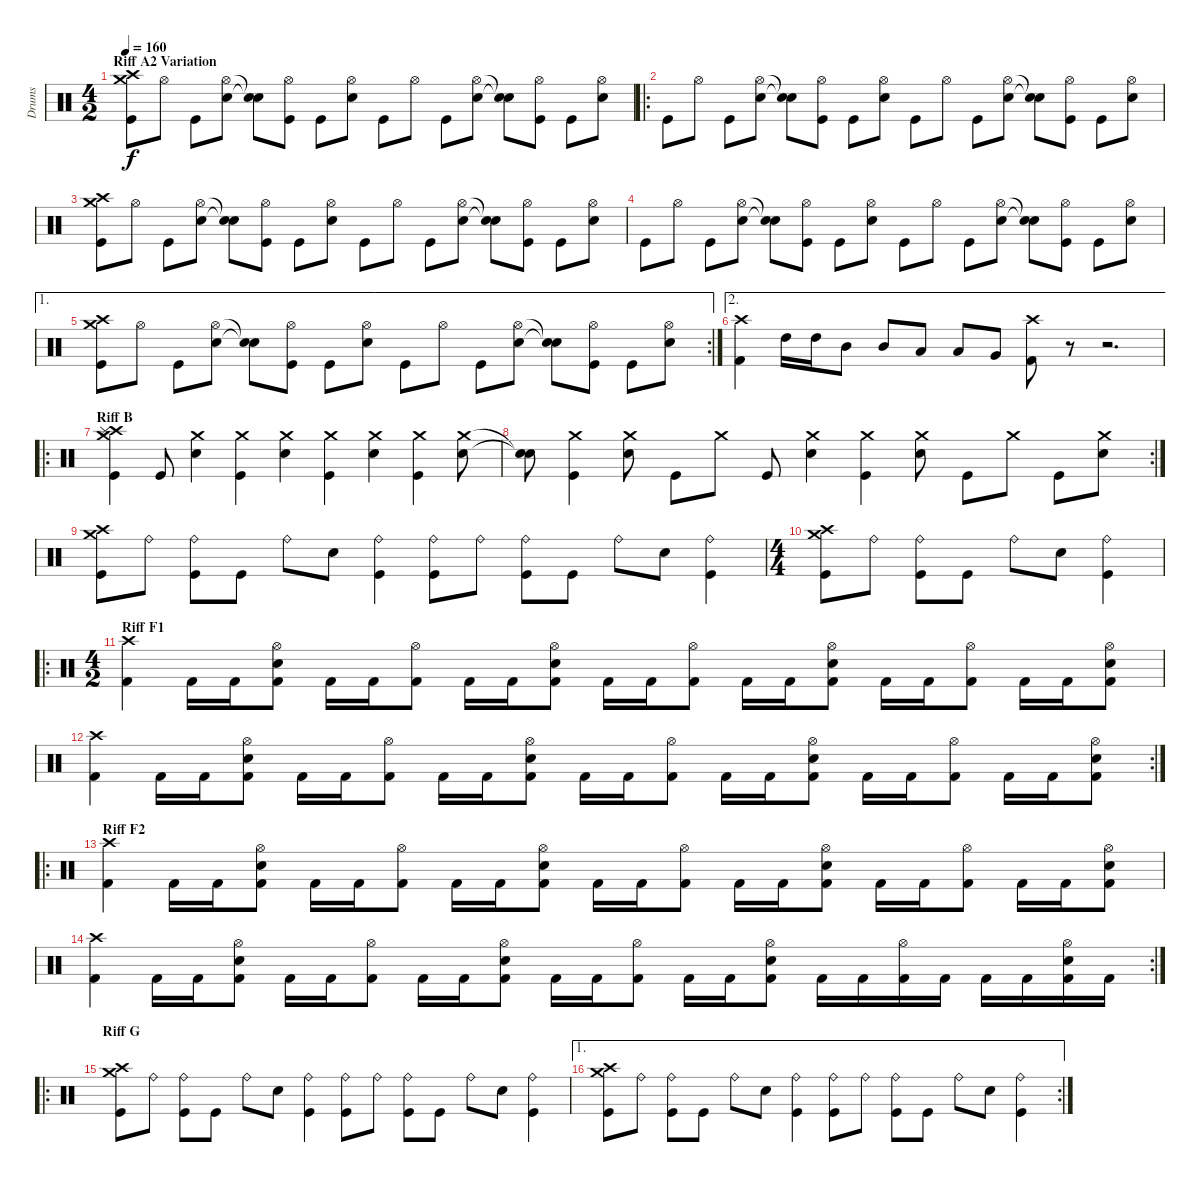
\track ("Drums" "Drums") {instrument percussion}
\staff {score}
\articulation defaults
\ts (4 2)
\section ("" "Riff A2 Variation")
\tempo 160
\clef neutral
\ks c
("Kick (hit)" "Crash medium (hit)" "Crash high (hit)").8{dy f} "Hi-Hat (open)".8 "Kick (hit)".8 ("Hi-Hat (open)" "Electric Snare (hit)").8 ("Snare (hit)"{t} "Snare (hit)"{t}).8 ("Kick (hit)" "Hi-Hat (open)").8 "Kick (hit)".8 ("Hi-Hat (open)" "Electric Snare (hit)").8 "Kick (hit)".8 "Hi-Hat (open)".8 "Kick (hit)".8 ("Hi-Hat (open)" "Electric Snare (hit)").8 ("Snare (hit)"{t} "Snare (hit)"{t}).8 ("Kick (hit)" "Hi-Hat (open)").8 "Kick (hit)".8 ("Hi-Hat (open)" "Electric Snare (hit)").8 |
\ro "Kick (hit)".8 "Hi-Hat (open)".8 "Kick (hit)".8
("Hi-Hat (open)" "Electric Snare (hit)").8 ("Snare (hit)"{t} "Snare (hit)"{t}).8 ("Kick (hit)" "Hi-Hat (open)").8 "Kick (hit)".8 ("Hi-Hat (open)" "Electric Snare (hit)").8 "Kick (hit)".8 "Hi-Hat (open)".8 "Kick (hit)".8 ("Hi-Hat (open)" "Electric Snare (hit)").8 ("Snare (hit)"{t} "Snare (hit)"{t}).8 ("Kick (hit)" "Hi-Hat (open)").8 "Kick (hit)".8 ("Hi-Hat (open)" "Electric Snare (hit)").8 |
("Kick (hit)" "Crash medium (hit)" "Crash high (hit)").8 "Hi-Hat (open)".8 "Kick (hit)".8 ("Hi-Hat (open)" "Electric Snare (hit)").8 ("Snare (hit)"{t} "Snare (hit)"{t}).8 ("Kick (hit)" "Hi-Hat (open)").8 "Kick (hit)".8 ("Hi-Hat (open)" "Electric Snare (hit)").8 "Kick (hit)".8 "Hi-Hat (open)".8 "Kick (hit)".8 ("Hi-Hat (open)" "Electric Snare (hit)").8 ("Snare (hit)"{t} "Snare (hit)"{t}).8 ("Kick (hit)" "Hi-Hat (open)").8 "Kick (hit)".8 ("Hi-Hat (open)" "Electric Snare (hit)").8 |
"Kick (hit)".8 "Hi-Hat (open)".8 "Kick (hit)".8 ("Hi-Hat (open)" "Electric Snare (hit)").8 ("Snare (hit)"{t} "Snare (hit)"{t}).8 ("Kick (hit)" "Hi-Hat (open)").8 "Kick (hit)".8 ("Hi-Hat (open)" "Electric Snare (hit)").8 "Kick (hit)".8 "Hi-Hat (open)".8 "Kick (hit)".8 ("Hi-Hat (open)" "Electric Snare (hit)").8 ("Snare (hit)"{t} "Snare (hit)"{t}).8 ("Kick (hit)" "Hi-Hat (open)").8 "Kick (hit)".8 ("Hi-Hat (open)" "Electric Snare (hit)").8 |
\ae 1
\rc 2
("Kick (hit)" "Crash medium (hit)" "Crash high (hit)").8 "Hi-Hat (open)".8 "Kick (hit)".8 ("Hi-Hat (open)" "Electric Snare (hit)").8 ("Snare (hit)"{t} "Snare (hit)"{t}).8 ("Kick (hit)" "Hi-Hat (open)").8 "Kick (hit)".8 ("Hi-Hat (open)" "Electric Snare (hit)").8 "Kick (hit)".8 "Hi-Hat (open)".8 "Kick (hit)".8 ("Hi-Hat (open)" "Electric Snare (hit)").8 ("Snare (hit)"{t} "Snare (hit)"{t}).8 ("Kick (hit)" "Hi-Hat (open)").8 "Kick (hit)".8 ("Hi-Hat (open)" "Electric Snare (hit)").8 |
\ae 2
("Crash high (hit)" "Kick (hit) 2").4 "High Tom (hit)".16 "High Tom (hit)".16 "Mid Tom (hit)".8 "Mid Tom (hit)".8 "Low Tom (hit)".8 "Low Tom (hit)".8 "Very Low Tom (hit)".8 ("Crash high (hit)" "Kick (hit) 2").8 r.8 r.2{d} |
\ro
\section ("" "Riff B")
("Kick (hit)" "Crash medium (hit)" "Crash high (hit)" "Splash (hit)").4 "Kick (hit)".8 ("Crash medium (hit)" "Electric Snare (hit)").4 ("Kick (hit)" "Crash medium (hit)").4 ("Crash medium (hit)" "Electric Snare (hit)").4 ("Kick (hit)" "Crash medium (hit)").4 ("Crash medium (hit)" "Electric Snare (hit)").4 ("Kick (hit)" "Crash medium (hit)").4 ("Crash medium (hit)" "Electric Snare (hit)").8 |
\rc 2
("Snare (hit)"{t} "Snare (hit)"{t}).8 ("Kick (hit)" "Crash medium (hit)").4 ("Crash medium (hit)" "Electric Snare (hit)").8 "Kick (hit)".8 "Crash medium (hit)".8 "Kick (hit)".8 ("Crash medium (hit)" "Electric Snare (hit)").4 ("Kick (hit)" "Crash medium (hit)").4 ("Crash medium (hit)" "Electric Snare (hit)").8 "Kick (hit)".8 "Crash medium (hit)".8 "Kick (hit)".8 ("Crash medium (hit)" "Electric Snare (hit)").8 |
("Kick (hit)" "Crash high (hit)" "Crash medium (hit)").8 "Ride (bell)".8 ("Kick (hit)" "Ride (bell)").8 "Kick (hit)".8 "Ride (bell)".8 "Electric Snare (hit)".8 ("Kick (hit)" "Ride (bell)").4 ("Kick (hit)" "Ride (bell)").8 "Ride (bell)".8 ("Kick (hit)" "Ride (bell)").8 "Kick (hit)".8 "Ride (bell)".8 "Electric Snare (hit)".8 ("Kick (hit)" "Ride (bell)").4 |
\ts (4 4)
("Kick (hit)" "Crash high (hit)" "Crash medium (hit)").8 "Ride (bell)".8 ("Kick (hit)" "Ride (bell)").8 "Kick (hit)".8 "Ride (bell)".8 "Electric Snare (hit)".8 ("Kick (hit)" "Ride (bell)").4 |
\ro
\ts (4 2)
\section ("" "Riff F1")
("Crash high (hit)" "Kick (hit) 2").4 "Kick (hit) 2".16 "Kick (hit) 2".16 ("Hi-Hat (open)" "Electric Snare (hit)" "Kick (hit) 2").8 "Kick (hit) 2".16 "Kick (hit) 2".16 ("Hi-Hat (open)" "Kick (hit) 2").8 "Kick (hit) 2".16 "Kick (hit) 2".16 ("Hi-Hat (open)" "Electric Snare (hit)" "Kick (hit) 2").8 "Kick (hit) 2".16 "Kick (hit) 2".16 ("Hi-Hat (open)" "Kick (hit) 2").8 "Kick (hit) 2".16 "Kick (hit) 2".16 ("Hi-Hat (open)" "Electric Snare (hit)" "Kick (hit) 2").8 "Kick (hit) 2".16 "Kick (hit) 2".16 ("Hi-Hat (open)" "Kick (hit) 2").8 "Kick (hit) 2".16 "Kick (hit) 2".16 ("Hi-Hat (open)" "Electric Snare (hit)" "Kick (hit) 2").8 |
\rc 2
("Crash high (hit)" "Kick (hit) 2").4 "Kick (hit) 2".16 "Kick (hit) 2".16 ("Hi-Hat (open)" "Electric Snare (hit)" "Kick (hit) 2").8 "Kick (hit) 2".16 "Kick (hit) 2".16 ("Hi-Hat (open)" "Kick (hit) 2").8 "Kick (hit) 2".16 "Kick (hit) 2".16 ("Hi-Hat (open)" "Electric Snare (hit)" "Kick (hit) 2").8 "Kick (hit) 2".16 "Kick (hit) 2".16 ("Hi-Hat (open)" "Kick (hit) 2").8 "Kick (hit) 2".16 "Kick (hit) 2".16 ("Hi-Hat (open)" "Electric Snare (hit)" "Kick (hit) 2").8 "Kick (hit) 2".16 "Kick (hit) 2".16 ("Hi-Hat (open)" "Kick (hit) 2").8 "Kick (hit) 2".16 "Kick (hit) 2".16 ("Hi-Hat (open)" "Electric Snare (hit)" "Kick (hit) 2").8 |
\ro
\section ("" "Riff F2")
("Crash high (hit)" "Kick (hit) 2").4 "Kick (hit) 2".16 "Kick (hit) 2".16 ("Hi-Hat (open)" "Electric Snare (hit)" "Kick (hit) 2").8 "Kick (hit) 2".16 "Kick (hit) 2".16 ("Hi-Hat (open)" "Kick (hit) 2").8 "Kick (hit) 2".16 "Kick (hit) 2".16 ("Hi-Hat (open)" "Electric Snare (hit)" "Kick (hit) 2").8 "Kick (hit) 2".16 "Kick (hit) 2".16 ("Hi-Hat (open)" "Kick (hit) 2").8 "Kick (hit) 2".16 "Kick (hit) 2".16 ("Hi-Hat (open)" "Electric Snare (hit)" "Kick (hit) 2").8 "Kick (hit) 2".16 "Kick (hit) 2".16 ("Hi-Hat (open)" "Kick (hit) 2").8 "Kick (hit) 2".16 "Kick (hit) 2".16 ("Hi-Hat (open)" "Electric Snare (hit)" "Kick (hit) 2").8 |
\rc 2
("Crash high (hit)" "Kick (hit) 2").4 "Kick (hit) 2".16 "Kick (hit) 2".16 ("Hi-Hat (open)" "Electric Snare (hit)" "Kick (hit) 2").8 "Kick (hit) 2".16 "Kick (hit) 2".16 ("Hi-Hat (open)" "Kick (hit) 2").8 "Kick (hit) 2".16 "Kick (hit) 2".16 ("Hi-Hat (open)" "Electric Snare (hit)" "Kick (hit) 2").8 "Kick (hit) 2".16 "Kick (hit) 2".16 ("Hi-Hat (open)" "Kick (hit) 2").8 "Kick (hit) 2".16 "Kick (hit) 2".16 ("Hi-Hat (open)" "Electric Snare (hit)" "Kick (hit) 2").8 "Kick (hit) 2".16 "Kick (hit) 2".16 ("Hi-Hat (open)" "Kick (hit) 2").16 "Kick (hit) 2".16 "Kick (hit) 2".16 "Kick (hit) 2".16 ("Hi-Hat (open)" "Electric Snare (hit)" "Kick (hit) 2").16 "Kick (hit) 2".16 |
\ro
\section ("" "Riff G")
("Kick (hit)" "Crash high (hit)" "Crash medium (hit)").8 "Ride (bell)".8 ("Kick (hit)" "Ride (bell)").8 "Kick (hit)".8 "Ride (bell)".8 "Electric Snare (hit)".8 ("Kick (hit)" "Ride (bell)").4 ("Kick (hit)" "Ride (bell)").8 "Ride (bell)".8 ("Kick (hit)" "Ride (bell)").8 "Kick (hit)".8 "Ride (bell)".8 "Electric Snare (hit)".8 ("Kick (hit)" "Ride (bell)").4 |
\ae 1
\rc 2
("Kick (hit)" "Crash high (hit)" "Crash medium (hit)").8 "Ride (bell)".8 ("Kick (hit)" "Ride (bell)").8 "Kick (hit)".8 "Ride (bell)".8 "Electric Snare (hit)".8 ("Kick (hit)" "Ride (bell)").4 ("Kick (hit)" "Ride (bell)").8 "Ride (bell)".8 ("Kick (hit)" "Ride (bell)").8 "Kick (hit)".8 "Ride (bell)".8 "Electric Snare (hit)".8 ("Kick (hit)" "Ride (bell)").4
